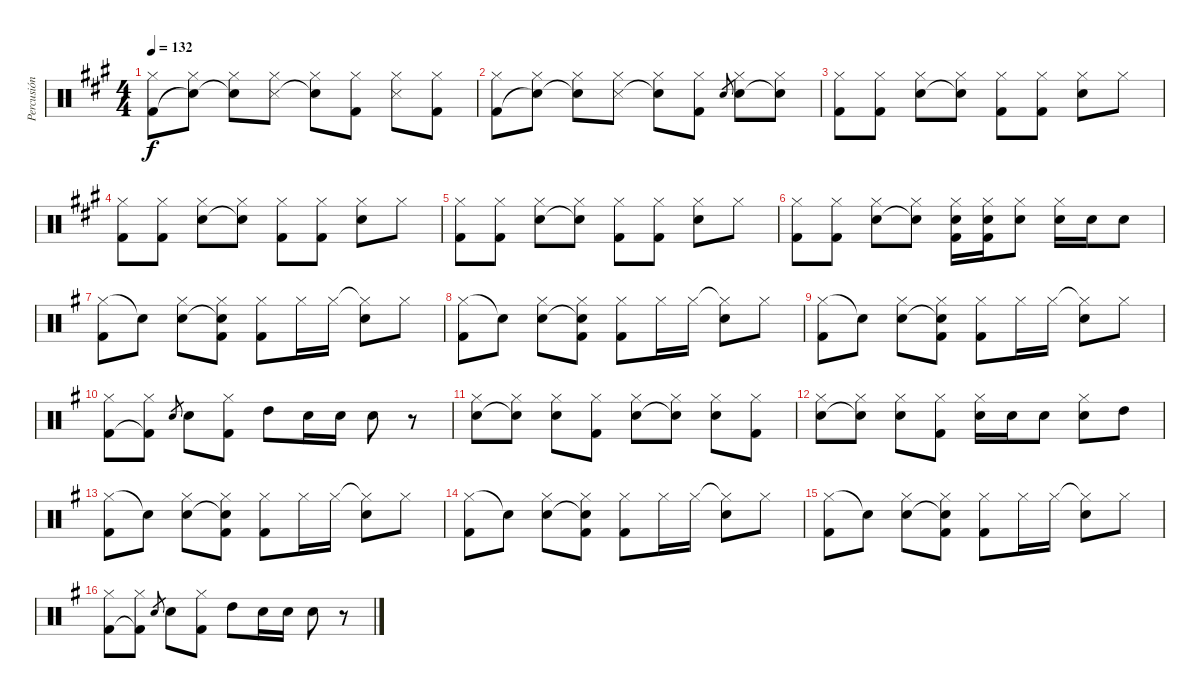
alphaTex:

\track ("Percusión" "Percusión") {instrument percussion}
\staff {score}
\articulation defaults
\ts (4 4)
\tempo 132
\clef neutral
\ks f#minor
("Hi-Hat (closed)" "Kick (hit) 2").8{dy f} ("Hi-Hat (closed)" "Snare (hit)"{t}).8 ("Hi-Hat (closed)" "Snare (hit)"{t}).8 ("Hi-Hat (closed)" "Snare (side stick) 3").8 ("Hi-Hat (closed)" "Snare (hit)"{t}).8 ("Hi-Hat (closed)" "Kick (hit) 2").8 ("Hi-Hat (closed)" "Snare (side stick) 3").8 ("Hi-Hat (closed)" "Kick (hit) 2").8 |
("Hi-Hat (closed)" "Kick (hit) 2").8 ("Hi-Hat (closed)" "Snare (hit)"{t}).8 ("Hi-Hat (closed)" "Snare (hit)"{t}).8 ("Hi-Hat (closed)" "Snare (side stick) 3").8 ("Hi-Hat (closed)" "Snare (hit)"{t}).8 ("Hi-Hat (closed)" "Kick (hit) 2").8 "Snare (hit) 2".8{gr} ("Hi-Hat (closed)" "Snare (hit) 2").8 ("Hi-Hat (closed)" "Snare (hit)"{t}).8 |
("Hi-Hat (closed)" "Kick (hit) 2").8 ("Hi-Hat (closed)" "Kick (hit) 2").8 ("Hi-Hat (closed)" "Electric Snare (hit)").8 ("Hi-Hat (closed)" "Snare (hit)"{t}).8 ("Hi-Hat (closed)" "Kick (hit) 2").8 ("Hi-Hat (closed)" "Kick (hit) 2").8 ("Hi-Hat (closed)" "Electric Snare (hit)").8 "Hi-Hat (closed)".8 |
("Hi-Hat (closed)" "Kick (hit) 2").8 ("Hi-Hat (closed)" "Kick (hit) 2").8 ("Hi-Hat (closed)" "Electric Snare (hit)").8 ("Hi-Hat (closed)" "Snare (hit)"{t}).8 ("Hi-Hat (closed)" "Kick (hit) 2").8 ("Hi-Hat (closed)" "Kick (hit) 2").8 ("Hi-Hat (closed)" "Electric Snare (hit)").8 "Hi-Hat (closed)".8 |
("Hi-Hat (closed)" "Kick (hit) 2").8 ("Hi-Hat (closed)" "Kick (hit) 2").8 ("Hi-Hat (closed)" "Electric Snare (hit)").8 ("Hi-Hat (closed)" "Snare (hit)"{t}).8 ("Hi-Hat (closed)" "Kick (hit) 2").8 ("Hi-Hat (closed)" "Kick (hit) 2").8 ("Hi-Hat (closed)" "Electric Snare (hit)").8 "Hi-Hat (closed)".8 |
("Hi-Hat (closed)" "Kick (hit) 2").8 ("Hi-Hat (closed)" "Kick (hit) 2").8 ("Hi-Hat (closed)" "Electric Snare (hit)").8 ("Hi-Hat (closed)" "Snare (hit)"{t}).8 ("Hi-Hat (closed)" "Electric Snare (hit)" "Kick (hit) 2").16 ("Hi-Hat (closed)" "Electric Snare (hit)" "Kick (hit) 2").16 ("Hi-Hat (closed)" "Electric Snare (hit)").8 ("Hi-Hat (closed)" "Electric Snare (hit)").16 "Electric Snare (hit)".16 "Electric Snare (hit)".8 |
\ks eminor
("Hi-Hat (closed)" "Kick (hit) 2").8 "Snare (hit)"{t}.8 ("Hi-Hat (closed)" "Electric Snare (hit)").8 ("Hi-Hat (closed)" "Snare (hit)"{t} "Kick (hit) 2").8 ("Hi-Hat (closed)" "Kick (hit) 2").8 "Hi-Hat (closed)".16 "Hi-Hat (closed)".16 ("Hi-Hat (closed)"{t} "Electric Snare (hit)").8 "Hi-Hat (closed)".8 |
("Hi-Hat (closed)" "Kick (hit) 2").8 "Snare (hit)"{t}.8 ("Hi-Hat (closed)" "Electric Snare (hit)").8 ("Hi-Hat (closed)" "Snare (hit)"{t} "Kick (hit) 2").8 ("Hi-Hat (closed)" "Kick (hit) 2").8 "Hi-Hat (closed)".16 "Hi-Hat (closed)".16 ("Hi-Hat (closed)"{t} "Electric Snare (hit)").8 "Hi-Hat (closed)".8 |
("Hi-Hat (closed)" "Kick (hit) 2").8 "Snare (hit)"{t}.8 ("Hi-Hat (closed)" "Electric Snare (hit)").8 ("Hi-Hat (closed)" "Snare (hit)"{t} "Kick (hit) 2").8 ("Hi-Hat (closed)" "Kick (hit) 2").8 "Hi-Hat (closed)".16 "Hi-Hat (closed)".16 ("Hi-Hat (closed)"{t} "Electric Snare (hit)").8 "Hi-Hat (closed)".8 |
("Hi-Hat (closed)" "Kick (hit) 2").8 ("Hi-Hat (closed)" "Kick (hit) 2"{t}).8 "Electric Snare (hit)".8{gr} "Electric Snare (hit)".8 ("Hi-Hat (closed)" "Kick (hit) 2").8 "High Tom (hit)".8 "Electric Snare (hit)".16 "Electric Snare (hit)".16 "Electric Snare (hit)".8 r.8 |
("Hi-Hat (closed)" "Electric Snare (hit)").8 ("Hi-Hat (closed)" "Snare (hit)"{t}).8 ("Hi-Hat (closed)" "Electric Snare (hit)").8 ("Hi-Hat (closed)" "Kick (hit) 2").8 ("Hi-Hat (closed)" "Electric Snare (hit)").8 ("Hi-Hat (closed)" "Snare (hit)"{t}).8 ("Hi-Hat (closed)" "Electric Snare (hit)").8 ("Hi-Hat (closed)" "Kick (hit) 2").8 |
("Hi-Hat (closed)" "Electric Snare (hit)").8 ("Hi-Hat (closed)" "Snare (hit)"{t}).8 ("Hi-Hat (closed)" "Electric Snare (hit)").8 ("Hi-Hat (closed)" "Kick (hit) 2").8 ("Hi-Hat (closed)" "Electric Snare (hit)").16 "Electric Snare (hit)".16 "Electric Snare (hit)".8 ("Hi-Hat (closed)" "Electric Snare (hit)").8 "High Tom (hit)".8 |
("Hi-Hat (closed)" "Kick (hit) 2").8 "Snare (hit)"{t}.8 ("Hi-Hat (closed)" "Electric Snare (hit)").8 ("Hi-Hat (closed)" "Snare (hit)"{t} "Kick (hit) 2").8 ("Hi-Hat (closed)" "Kick (hit) 2").8 "Hi-Hat (closed)".16 "Hi-Hat (closed)".16 ("Hi-Hat (closed)"{t} "Electric Snare (hit)").8 "Hi-Hat (closed)".8 |
("Hi-Hat (closed)" "Kick (hit) 2").8 "Snare (hit)"{t}.8 ("Hi-Hat (closed)" "Electric Snare (hit)").8 ("Hi-Hat (closed)" "Snare (hit)"{t} "Kick (hit) 2").8 ("Hi-Hat (closed)" "Kick (hit) 2").8 "Hi-Hat (closed)".16 "Hi-Hat (closed)".16 ("Hi-Hat (closed)"{t} "Electric Snare (hit)").8 "Hi-Hat (closed)".8 |
("Hi-Hat (closed)" "Kick (hit) 2").8 "Snare (hit)"{t}.8 ("Hi-Hat (closed)" "Electric Snare (hit)").8 ("Hi-Hat (closed)" "Snare (hit)"{t} "Kick (hit) 2").8 ("Hi-Hat (closed)" "Kick (hit) 2").8 "Hi-Hat (closed)".16 "Hi-Hat (closed)".16 ("Hi-Hat (closed)"{t} "Electric Snare (hit)").8 "Hi-Hat (closed)".8 |
("Hi-Hat (closed)" "Kick (hit) 2").8 ("Hi-Hat (closed)" "Kick (hit) 2"{t}).8 "Electric Snare (hit)".8{gr} "Electric Snare (hit)".8 ("Hi-Hat (closed)" "Kick (hit) 2").8 "High Tom (hit)".8 "Electric Snare (hit)".16 "Electric Snare (hit)".16 "Electric Snare (hit)".8 r.8
